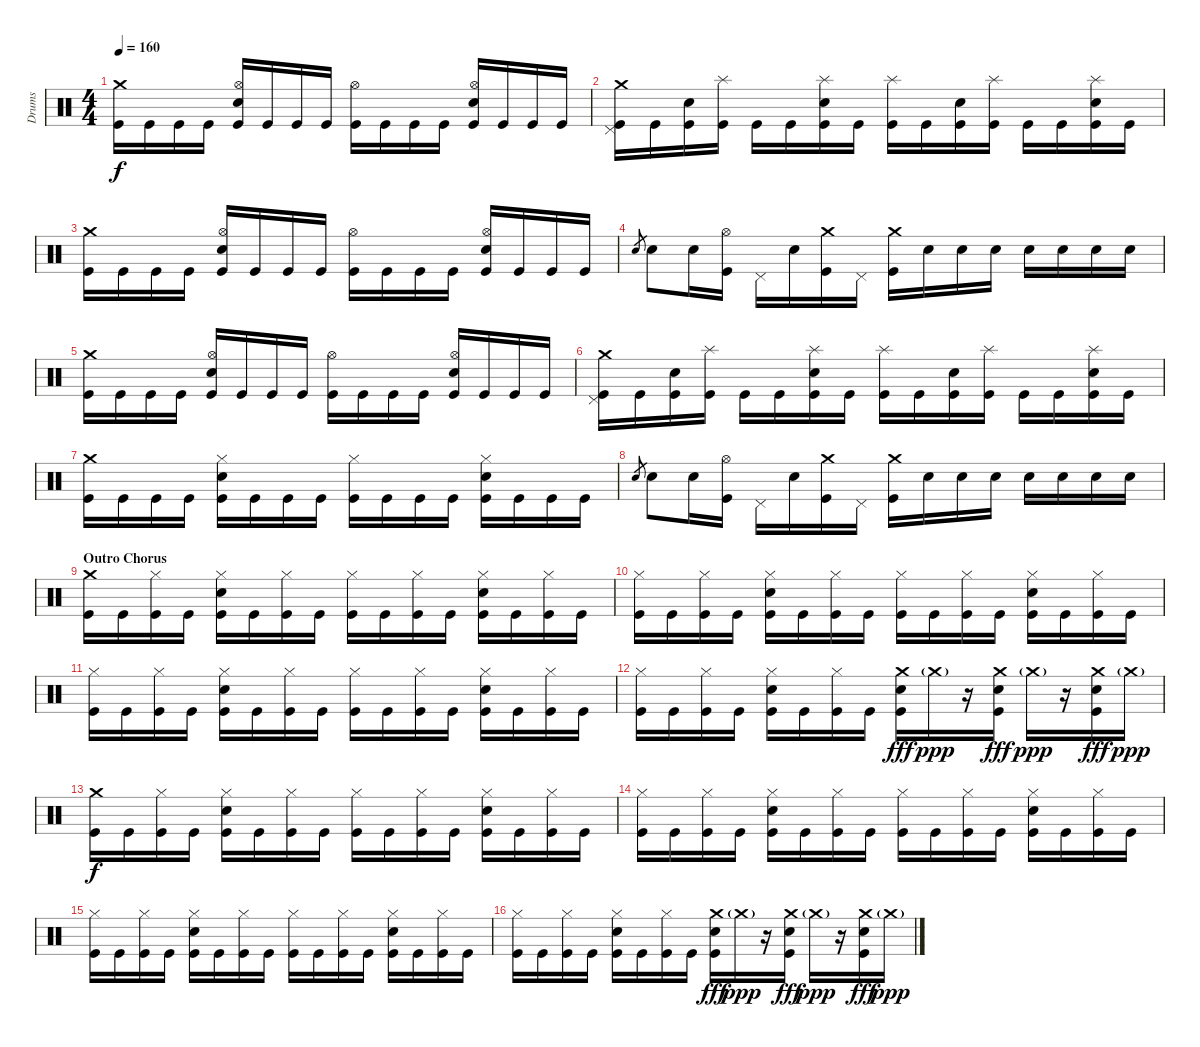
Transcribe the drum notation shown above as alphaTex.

\track ("Drums" "Drums") {instrument percussion}
\staff {score}
\articulation defaults
\ts (4 4)
\tempo 160
\clef neutral
\ks c
("Crash medium (hit)" "Kick (hit)").16{dy f} "Kick (hit)".16 "Kick (hit)".16 "Kick (hit)".16 ("Hi-Hat (open)" "Electric Snare (hit)" "Kick (hit)").16 "Kick (hit)".16 "Kick (hit)".16 "Kick (hit)".16 ("Hi-Hat (open)" "Kick (hit)").16 "Kick (hit)".16 "Kick (hit)".16 "Kick (hit)".16 ("Hi-Hat (open)" "Electric Snare (hit)" "Kick (hit)").16 "Kick (hit)".16 "Kick (hit)".16 "Kick (hit)".16 |
("Crash medium (hit)" "Pedal Hi-Hat (hit)" "Kick (hit)").16 "Kick (hit)".16 ("Electric Snare (hit)" "Kick (hit)").16 ("Splash (hit)" "Kick (hit)").16 "Kick (hit)".16 "Kick (hit)".16 ("Splash (hit)" "Electric Snare (hit)" "Kick (hit)").16 "Kick (hit)".16 ("Splash (hit)" "Kick (hit)").16 "Kick (hit)".16 ("Electric Snare (hit)" "Kick (hit)").16 ("Splash (hit)" "Kick (hit)").16 "Kick (hit)".16 "Kick (hit)".16 ("Splash (hit)" "Electric Snare (hit)" "Kick (hit)").16 "Kick (hit)".16 |
("Crash medium (hit)" "Kick (hit)").16 "Kick (hit)".16 "Kick (hit)".16 "Kick (hit)".16 ("Hi-Hat (open)" "Electric Snare (hit)" "Kick (hit)").16 "Kick (hit)".16 "Kick (hit)".16 "Kick (hit)".16 ("Hi-Hat (open)" "Kick (hit)").16 "Kick (hit)".16 "Kick (hit)".16 "Kick (hit)".16 ("Hi-Hat (open)" "Electric Snare (hit)" "Kick (hit)").16 "Kick (hit)".16 "Kick (hit)".16 "Kick (hit)".16 |
"Electric Snare (hit)".8{gr} "Electric Snare (hit)".8 "Electric Snare (hit)".16 ("Hi-Hat (open)" "Kick (hit)").16 "Pedal Hi-Hat (hit)".16 "Electric Snare (hit)".16 ("Crash medium (hit)" "Kick (hit)").16 "Pedal Hi-Hat (hit)".16 ("Crash medium (hit)" "Kick (hit)").16 "Electric Snare (hit)".16 "Electric Snare (hit)".16 "Electric Snare (hit)".16 "Electric Snare (hit)".16 "Electric Snare (hit)".16 "Electric Snare (hit)".16 "Electric Snare (hit)".16 |
("Crash medium (hit)" "Kick (hit)").16 "Kick (hit)".16 "Kick (hit)".16 "Kick (hit)".16 ("Hi-Hat (open)" "Electric Snare (hit)" "Kick (hit)").16 "Kick (hit)".16 "Kick (hit)".16 "Kick (hit)".16 ("Hi-Hat (open)" "Kick (hit)").16 "Kick (hit)".16 "Kick (hit)".16 "Kick (hit)".16 ("Hi-Hat (open)" "Electric Snare (hit)" "Kick (hit)").16 "Kick (hit)".16 "Kick (hit)".16 "Kick (hit)".16 |
("Crash medium (hit)" "Pedal Hi-Hat (hit)" "Kick (hit)").16 "Kick (hit)".16 ("Electric Snare (hit)" "Kick (hit)").16 ("Splash (hit)" "Kick (hit)").16 "Kick (hit)".16 "Kick (hit)".16 ("Splash (hit)" "Electric Snare (hit)" "Kick (hit)").16 "Kick (hit)".16 ("Splash (hit)" "Kick (hit)").16 "Kick (hit)".16 ("Electric Snare (hit)" "Kick (hit)").16 ("Splash (hit)" "Kick (hit)").16 "Kick (hit)".16 "Kick (hit)".16 ("Splash (hit)" "Electric Snare (hit)" "Kick (hit)").16 "Kick (hit)".16 |
("Crash medium (hit)" "Kick (hit)").16 "Kick (hit)".16 "Kick (hit)".16 "Kick (hit)".16 ("Hi-Hat (closed)" "Electric Snare (hit)" "Kick (hit)").16 "Kick (hit)".16 "Kick (hit)".16 "Kick (hit)".16 ("Hi-Hat (closed)" "Kick (hit)").16 "Kick (hit)".16 "Kick (hit)".16 "Kick (hit)".16 ("Hi-Hat (closed)" "Electric Snare (hit)" "Kick (hit)").16 "Kick (hit)".16 "Kick (hit)".16 "Kick (hit)".16 |
"Electric Snare (hit)".8{gr} "Electric Snare (hit)".8 "Electric Snare (hit)".16 ("Hi-Hat (open)" "Kick (hit)").16 "Pedal Hi-Hat (hit)".16 "Electric Snare (hit)".16 ("Crash medium (hit)" "Kick (hit)").16 "Pedal Hi-Hat (hit)".16 ("Crash medium (hit)" "Kick (hit)").16 "Electric Snare (hit)".16 "Electric Snare (hit)".16 "Electric Snare (hit)".16 "Electric Snare (hit)".16 "Electric Snare (hit)".16 "Electric Snare (hit)".16 "Electric Snare (hit)".16 |
\section ("" "Outro Chorus")
("Crash medium (hit)" "Kick (hit)").16 "Kick (hit)".16 ("Hi-Hat (closed)" "Kick (hit)").16 "Kick (hit)".16 ("Hi-Hat (closed)" "Electric Snare (hit)" "Kick (hit)").16 "Kick (hit)".16 ("Hi-Hat (closed)" "Kick (hit)").16 "Kick (hit)".16 ("Hi-Hat (closed)" "Kick (hit)").16 "Kick (hit)".16 ("Hi-Hat (closed)" "Kick (hit)").16 "Kick (hit)".16 ("Hi-Hat (closed)" "Electric Snare (hit)" "Kick (hit)").16 "Kick (hit)".16 ("Hi-Hat (closed)" "Kick (hit)").16 "Kick (hit)".16 |
("Hi-Hat (closed)" "Kick (hit)").16 "Kick (hit)".16 ("Hi-Hat (closed)" "Kick (hit)").16 "Kick (hit)".16 ("Hi-Hat (closed)" "Electric Snare (hit)" "Kick (hit)").16 "Kick (hit)".16 ("Hi-Hat (closed)" "Kick (hit)").16 "Kick (hit)".16 ("Hi-Hat (closed)" "Kick (hit)").16 "Kick (hit)".16 ("Hi-Hat (closed)" "Kick (hit)").16 "Kick (hit)".16 ("Hi-Hat (closed)" "Electric Snare (hit)" "Kick (hit)").16 "Kick (hit)".16 ("Hi-Hat (closed)" "Kick (hit)").16 "Kick (hit)".16 |
("Hi-Hat (closed)" "Kick (hit)").16 "Kick (hit)".16 ("Hi-Hat (closed)" "Kick (hit)").16 "Kick (hit)".16 ("Hi-Hat (closed)" "Electric Snare (hit)" "Kick (hit)").16 "Kick (hit)".16 ("Hi-Hat (closed)" "Kick (hit)").16 "Kick (hit)".16 ("Hi-Hat (closed)" "Kick (hit)").16 "Kick (hit)".16 ("Hi-Hat (closed)" "Kick (hit)").16 "Kick (hit)".16 ("Hi-Hat (closed)" "Electric Snare (hit)" "Kick (hit)").16 "Kick (hit)".16 ("Hi-Hat (closed)" "Kick (hit)").16 "Kick (hit)".16 |
("Hi-Hat (closed)" "Kick (hit)").16 "Kick (hit)".16 ("Hi-Hat (closed)" "Kick (hit)").16 "Kick (hit)".16 ("Hi-Hat (closed)" "Electric Snare (hit)" "Kick (hit)").16 "Kick (hit)".16 ("Hi-Hat (closed)" "Kick (hit)").16 "Kick (hit)".16 ("Crash medium (hit)" "Electric Snare (hit)" "Kick (hit)").16{dy fff} "Crash medium (hit)"{g}.16{dy ppp} r.16 ("Crash medium (hit)" "Electric Snare (hit)" "Kick (hit)").16{dy fff} "Crash medium (hit)"{g}.16{dy ppp} r.16 ("Crash medium (hit)" "Electric Snare (hit)" "Kick (hit)").16{dy fff} "Crash medium (hit)"{g}.16{dy ppp} |
("Crash medium (hit)" "Kick (hit)").16{dy f} "Kick (hit)".16 ("Hi-Hat (closed)" "Kick (hit)").16 "Kick (hit)".16 ("Hi-Hat (closed)" "Electric Snare (hit)" "Kick (hit)").16 "Kick (hit)".16 ("Hi-Hat (closed)" "Kick (hit)").16 "Kick (hit)".16 ("Hi-Hat (closed)" "Kick (hit)").16 "Kick (hit)".16 ("Hi-Hat (closed)" "Kick (hit)").16 "Kick (hit)".16 ("Hi-Hat (closed)" "Electric Snare (hit)" "Kick (hit)").16 "Kick (hit)".16 ("Hi-Hat (closed)" "Kick (hit)").16 "Kick (hit)".16 |
("Hi-Hat (closed)" "Kick (hit)").16 "Kick (hit)".16 ("Hi-Hat (closed)" "Kick (hit)").16 "Kick (hit)".16 ("Hi-Hat (closed)" "Electric Snare (hit)" "Kick (hit)").16 "Kick (hit)".16 ("Hi-Hat (closed)" "Kick (hit)").16 "Kick (hit)".16 ("Hi-Hat (closed)" "Kick (hit)").16 "Kick (hit)".16 ("Hi-Hat (closed)" "Kick (hit)").16 "Kick (hit)".16 ("Hi-Hat (closed)" "Electric Snare (hit)" "Kick (hit)").16 "Kick (hit)".16 ("Hi-Hat (closed)" "Kick (hit)").16 "Kick (hit)".16 |
("Hi-Hat (closed)" "Kick (hit)").16 "Kick (hit)".16 ("Hi-Hat (closed)" "Kick (hit)").16 "Kick (hit)".16 ("Hi-Hat (closed)" "Electric Snare (hit)" "Kick (hit)").16 "Kick (hit)".16 ("Hi-Hat (closed)" "Kick (hit)").16 "Kick (hit)".16 ("Hi-Hat (closed)" "Kick (hit)").16 "Kick (hit)".16 ("Hi-Hat (closed)" "Kick (hit)").16 "Kick (hit)".16 ("Hi-Hat (closed)" "Electric Snare (hit)" "Kick (hit)").16 "Kick (hit)".16 ("Hi-Hat (closed)" "Kick (hit)").16 "Kick (hit)".16 |
("Hi-Hat (closed)" "Kick (hit)").16 "Kick (hit)".16 ("Hi-Hat (closed)" "Kick (hit)").16 "Kick (hit)".16 ("Hi-Hat (closed)" "Electric Snare (hit)" "Kick (hit)").16 "Kick (hit)".16 ("Hi-Hat (closed)" "Kick (hit)").16 "Kick (hit)".16 ("Crash medium (hit)" "Electric Snare (hit)" "Kick (hit)").16{dy fff} "Crash medium (hit)"{g}.16{dy ppp} r.16 ("Crash medium (hit)" "Electric Snare (hit)" "Kick (hit)").16{dy fff} "Crash medium (hit)"{g}.16{dy ppp} r.16 ("Crash medium (hit)" "Electric Snare (hit)" "Kick (hit)").16{dy fff} "Crash medium (hit)"{g}.16{dy ppp}
